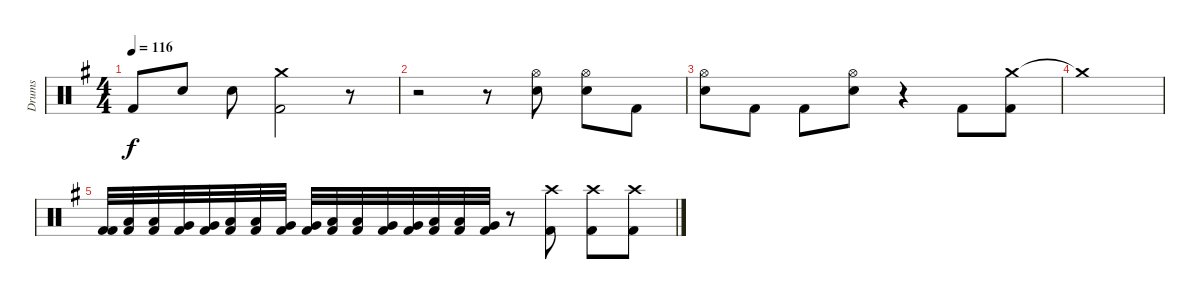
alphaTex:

\track ("Drums" "Drums") {instrument percussion}
\staff {score}
\articulation defaults
\ts (4 4)
\tempo 116
\clef neutral
\ks g "Kick (hit) 2".8{dy f} "Electric Snare (hit)".8 "Electric Snare (hit)".8
("Crash medium (hit)" "Kick (hit) 2").2 r.8 |
r.2 r.8 ("Hi-Hat (open)" "Electric Snare (hit)").8 ("Hi-Hat (open)" "Electric Snare (hit)").8 "Kick (hit) 2".8 |
("Hi-Hat (open)" "Electric Snare (hit)").8 "Kick (hit) 2".8 "Kick (hit) 2".8 ("Hi-Hat (open)" "Electric Snare (hit)").8 r.4 "Kick (hit) 2".8 ("Crash medium (hit)" "Kick (hit) 2").8 |
"Crash medium (hit)"{t}.1 |
("Kick (hit) 2" "Kick (hit) 2").32 ("Low Tom (hit)" "Kick (hit) 2").32 ("Low Tom (hit)" "Kick (hit) 2").32 ("Very Low Tom (hit)" "Kick (hit) 2").32 ("Very Low Tom (hit)" "Kick (hit) 2").32 ("Low Tom (hit)" "Kick (hit) 2").32 ("Low Tom (hit)" "Kick (hit) 2").32 ("Very Low Tom (hit)" "Kick (hit) 2").32 ("Very Low Tom (hit)" "Kick (hit) 2").32 ("Low Tom (hit)" "Kick (hit) 2").32 ("Low Tom (hit)" "Kick (hit) 2").32 ("Very Low Tom (hit)" "Kick (hit) 2").32 ("Very Low Tom (hit)" "Kick (hit) 2").32 ("Low Tom (hit)" "Kick (hit) 2").32 ("Low Tom (hit)" "Kick (hit) 2").32 ("Very Low Tom (hit)" "Kick (hit) 2").32 r.8 ("Crash high (hit)" "Kick (hit) 2").8 ("Crash high (hit)" "Kick (hit) 2").8 ("Crash high (hit)" "Kick (hit) 2").8
